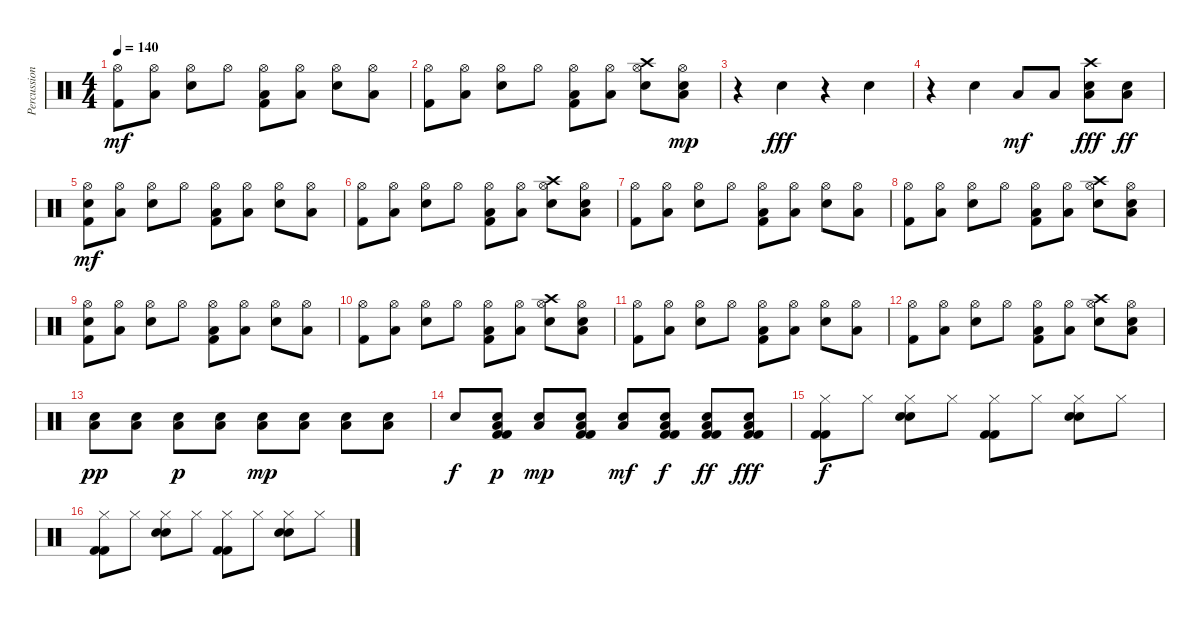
\track ("Percussion" "Percussion") {instrument percussion}
\staff {score}
\articulation defaults
\ts (4 4)
\tempo 140
\clef neutral
\ks c
("Hi-Hat (open)" "Kick (hit) 2").8{dy mf} ("Low Tom (hit)" "Hi-Hat (open)").8 ("Hi-Hat (open)" "Electric Snare (hit)").8 "Hi-Hat (open)".8 ("Low Tom (hit)" "Hi-Hat (open)" "Kick (hit) 2").8 ("Low Tom (hit)" "Hi-Hat (open)").8 ("Hi-Hat (open)" "Electric Snare (hit)").8 ("Low Tom (hit)" "Hi-Hat (open)").8 |
("Hi-Hat (open)" "Kick (hit) 2").8 ("Low Tom (hit)" "Hi-Hat (open)").8 ("Hi-Hat (open)" "Electric Snare (hit)").8 "Hi-Hat (open)".8 ("Low Tom (hit)" "Hi-Hat (open)" "Kick (hit) 2").8 ("Low Tom (hit)" "Hi-Hat (open)").8 ("Crash high (hit)" "Hi-Hat (open)" "Electric Snare (hit)").8 ("Low Tom (hit)" "Hi-Hat (open)" "Electric Snare (hit)").8{dy mp} |
r.4 "Electric Snare (hit)".4{dy fff} r.4 "Electric Snare (hit)".4 |
r.4 "Electric Snare (hit)".4 "Low Tom (hit)".8{dy mf} "Low Tom (hit)".8 ("Crash high (hit)" "Low Tom (hit)" "Electric Snare (hit)").8{dy fff} ("Low Tom (hit)" "Electric Snare (hit)").8{dy ff} |
("Electric Snare (hit)" "Hi-Hat (open)" "Kick (hit) 2").8{dy mf} ("Low Tom (hit)" "Hi-Hat (open)").8 ("Hi-Hat (open)" "Electric Snare (hit)").8 "Hi-Hat (open)".8 ("Low Tom (hit)" "Hi-Hat (open)" "Kick (hit) 2").8 ("Low Tom (hit)" "Hi-Hat (open)").8 ("Hi-Hat (open)" "Electric Snare (hit)").8 ("Low Tom (hit)" "Hi-Hat (open)").8 |
("Hi-Hat (open)" "Kick (hit) 2").8 ("Low Tom (hit)" "Hi-Hat (open)").8 ("Hi-Hat (open)" "Electric Snare (hit)").8 "Hi-Hat (open)".8 ("Low Tom (hit)" "Hi-Hat (open)" "Kick (hit) 2").8 ("Low Tom (hit)" "Hi-Hat (open)").8 ("Crash high (hit)" "Hi-Hat (open)" "Electric Snare (hit)").8 ("Low Tom (hit)" "Hi-Hat (open)" "Electric Snare (hit)").8 |
("Hi-Hat (open)" "Kick (hit) 2").8 ("Low Tom (hit)" "Hi-Hat (open)").8 ("Hi-Hat (open)" "Electric Snare (hit)").8 "Hi-Hat (open)".8 ("Low Tom (hit)" "Hi-Hat (open)" "Kick (hit) 2").8 ("Low Tom (hit)" "Hi-Hat (open)").8 ("Hi-Hat (open)" "Electric Snare (hit)").8 ("Low Tom (hit)" "Hi-Hat (open)").8 |
("Hi-Hat (open)" "Kick (hit) 2").8 ("Low Tom (hit)" "Hi-Hat (open)").8 ("Hi-Hat (open)" "Electric Snare (hit)").8 "Hi-Hat (open)".8 ("Low Tom (hit)" "Hi-Hat (open)" "Kick (hit) 2").8 ("Low Tom (hit)" "Hi-Hat (open)").8 ("Crash high (hit)" "Hi-Hat (open)" "Electric Snare (hit)").8 ("Low Tom (hit)" "Hi-Hat (open)" "Electric Snare (hit)").8 |
("Electric Snare (hit)" "Hi-Hat (open)" "Kick (hit) 2").8 ("Low Tom (hit)" "Hi-Hat (open)").8 ("Hi-Hat (open)" "Electric Snare (hit)").8 "Hi-Hat (open)".8 ("Low Tom (hit)" "Hi-Hat (open)" "Kick (hit) 2").8 ("Low Tom (hit)" "Hi-Hat (open)").8 ("Hi-Hat (open)" "Electric Snare (hit)").8 ("Low Tom (hit)" "Hi-Hat (open)").8 |
("Hi-Hat (open)" "Kick (hit) 2").8 ("Low Tom (hit)" "Hi-Hat (open)").8 ("Hi-Hat (open)" "Electric Snare (hit)").8 "Hi-Hat (open)".8 ("Low Tom (hit)" "Hi-Hat (open)" "Kick (hit) 2").8 ("Low Tom (hit)" "Hi-Hat (open)").8 ("Crash high (hit)" "Hi-Hat (open)" "Electric Snare (hit)").8 ("Low Tom (hit)" "Hi-Hat (open)" "Electric Snare (hit)").8 |
("Hi-Hat (open)" "Kick (hit) 2").8 ("Low Tom (hit)" "Hi-Hat (open)").8 ("Hi-Hat (open)" "Electric Snare (hit)").8 "Hi-Hat (open)".8 ("Low Tom (hit)" "Hi-Hat (open)" "Kick (hit) 2").8 ("Low Tom (hit)" "Hi-Hat (open)").8 ("Hi-Hat (open)" "Electric Snare (hit)").8 ("Low Tom (hit)" "Hi-Hat (open)").8 |
("Hi-Hat (open)" "Kick (hit) 2").8 ("Low Tom (hit)" "Hi-Hat (open)").8 ("Hi-Hat (open)" "Electric Snare (hit)").8 "Hi-Hat (open)".8 ("Low Tom (hit)" "Hi-Hat (open)" "Kick (hit) 2").8 ("Low Tom (hit)" "Hi-Hat (open)").8 ("Crash high (hit)" "Hi-Hat (open)" "Electric Snare (hit)").8 ("Low Tom (hit)" "Hi-Hat (open)" "Electric Snare (hit)").8 |
("Low Tom (hit)" "Electric Snare (hit)").8{dy pp} ("Low Tom (hit)" "Electric Snare (hit)").8 ("Low Tom (hit)" "Electric Snare (hit)").8{dy p} ("Low Tom (hit)" "Electric Snare (hit)").8 ("Low Tom (hit)" "Electric Snare (hit)").8{dy mp} ("Low Tom (hit)" "Electric Snare (hit)").8 ("Low Tom (hit)" "Electric Snare (hit)").8 ("Low Tom (hit)" "Electric Snare (hit)").8 |
"Electric Snare (hit)".8{dy f} ("Kick (hit) 2" "Kick (hit) 2" "Low Tom (hit)" "Electric Snare (hit)").8{dy p} ("Low Tom (hit)" "Electric Snare (hit)").8{dy mp} ("Kick (hit) 2" "Kick (hit) 2" "Low Tom (hit)" "Electric Snare (hit)").8 ("Low Tom (hit)" "Electric Snare (hit)").8{dy mf} ("Kick (hit) 2" "Kick (hit) 2" "Low Tom (hit)" "Electric Snare (hit)").8{dy f} ("Kick (hit) 2" "Kick (hit) 2" "Low Tom (hit)" "Electric Snare (hit)").8{dy ff} ("Kick (hit) 2" "Kick (hit) 2" "Low Tom (hit)" "Electric Snare (hit)").8{dy fff} |
("Hi-Hat (closed)" "Kick (hit) 2" "Kick (hit) 2").8{dy f} "Hi-Hat (closed)".8 ("Hi-Hat (closed)" "Electric Snare (hit)" "Electric Snare (hit)").8 "Hi-Hat (closed)".8 ("Hi-Hat (closed)" "Kick (hit) 2" "Kick (hit) 2").8 "Hi-Hat (closed)".8 ("Hi-Hat (closed)" "Electric Snare (hit)" "Electric Snare (hit)").8 "Hi-Hat (closed)".8 |
("Hi-Hat (closed)" "Kick (hit) 2" "Kick (hit) 2").8 "Hi-Hat (closed)".8 ("Hi-Hat (closed)" "Electric Snare (hit)" "Electric Snare (hit)").8 "Hi-Hat (closed)".8 ("Hi-Hat (closed)" "Kick (hit) 2" "Kick (hit) 2").8 "Hi-Hat (closed)".8 ("Hi-Hat (closed)" "Electric Snare (hit)" "Electric Snare (hit)").8 "Hi-Hat (closed)".8
